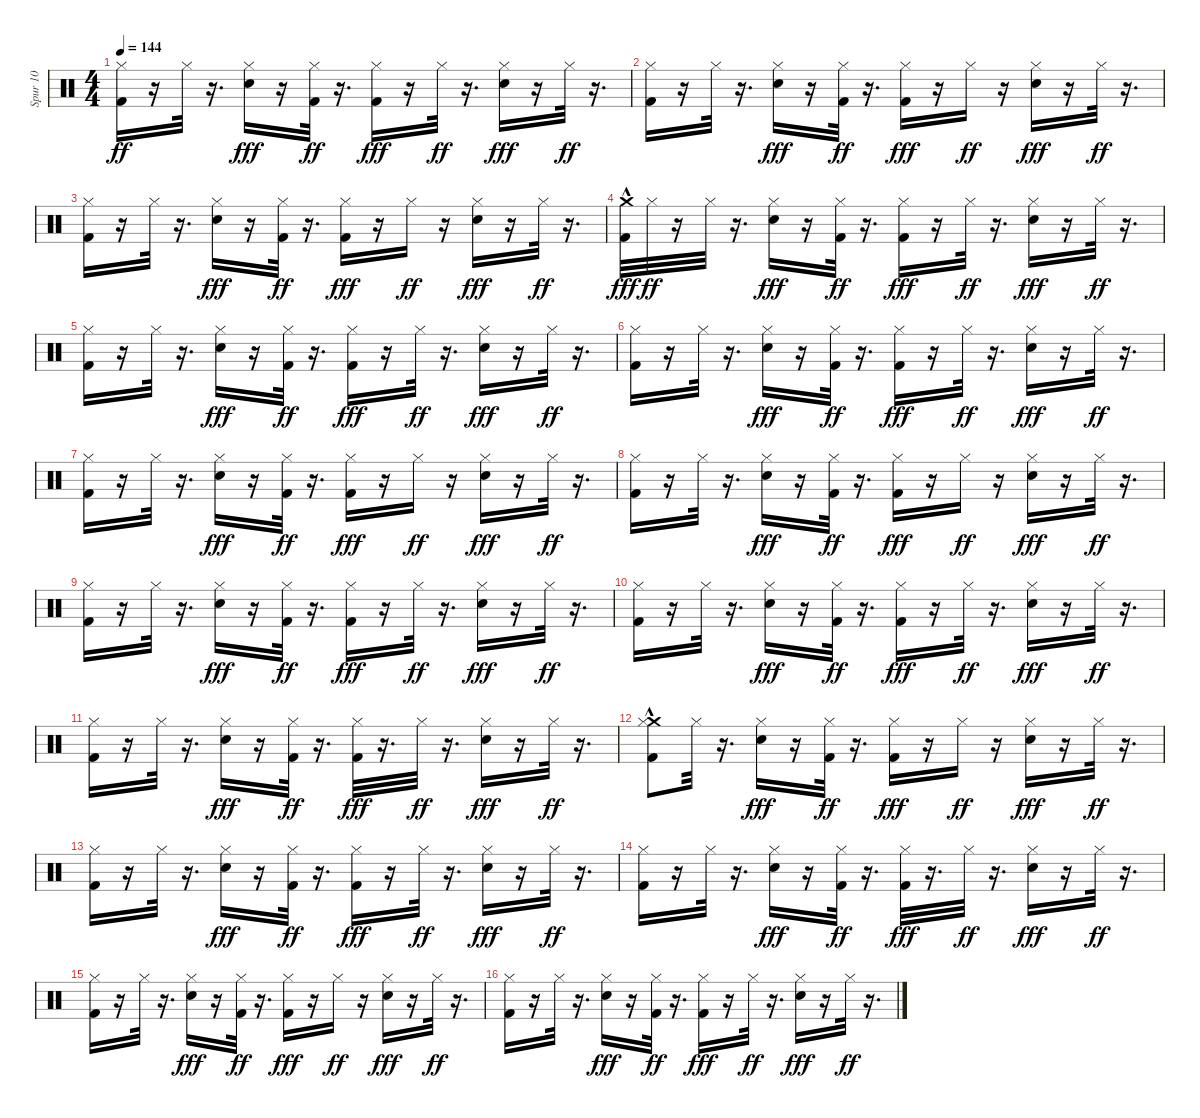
\track ("Spur 10" "Spur 10") {instrument percussion}
\staff {score}
\articulation defaults
\ts (4 4)
\tempo 144
\clef neutral
\ks c
("Kick (hit) 2" "Hi-Hat (closed)").16{dy ff} r.16 "Hi-Hat (closed)".32 r.16{d} ("Snare (hit) 2" "Hi-Hat (closed)").16{dy fff} r.16 ("Kick (hit) 2" "Hi-Hat (closed)").32{dy ff} r.16{d} ("Kick (hit) 2" "Hi-Hat (closed)").16{dy fff} r.16 "Hi-Hat (closed)".32{dy ff} r.16{d} ("Snare (hit) 2" "Hi-Hat (closed)").16{dy fff} r.16 "Hi-Hat (closed)".32{dy ff} r.16{d} |
("Kick (hit) 2" "Hi-Hat (closed)").16 r.16 "Hi-Hat (closed)".32 r.16{d} ("Snare (hit) 2" "Hi-Hat (closed)").16{dy fff} r.16 ("Kick (hit) 2" "Hi-Hat (closed)").32{dy ff} r.16{d} ("Kick (hit) 2" "Hi-Hat (closed)").16{dy fff} r.16 "Hi-Hat (closed)".16{dy ff} r.16 ("Snare (hit) 2" "Hi-Hat (closed)").16{dy fff} r.16 "Hi-Hat (closed)".32{dy ff} r.16{d} |
("Kick (hit) 2" "Hi-Hat (closed)").16 r.16 "Hi-Hat (closed)".32 r.16{d} ("Snare (hit) 2" "Hi-Hat (closed)").16{dy fff} r.16 ("Kick (hit) 2" "Hi-Hat (closed)").32{dy ff} r.16{d} ("Kick (hit) 2" "Hi-Hat (closed)").16{dy fff} r.16 "Hi-Hat (closed)".16{dy ff} r.16 ("Snare (hit) 2" "Hi-Hat (closed)").16{dy fff} r.16 "Hi-Hat (closed)".32{dy ff} r.16{d} |
("Crash medium (hit)"{hac} "Kick (hit) 2").32{dy fff} "Hi-Hat (closed)".32{dy ff} r.16 "Hi-Hat (closed)".32 r.16{d} ("Snare (hit) 2" "Hi-Hat (closed)").16{dy fff} r.16 ("Kick (hit) 2" "Hi-Hat (closed)").32{dy ff} r.16{d} ("Kick (hit) 2" "Hi-Hat (closed)").16{dy fff} r.16 "Hi-Hat (closed)".32{dy ff} r.16{d} ("Snare (hit) 2" "Hi-Hat (closed)").16{dy fff} r.16 "Hi-Hat (closed)".32{dy ff} r.16{d} |
("Kick (hit) 2" "Hi-Hat (closed)").16 r.16 "Hi-Hat (closed)".32 r.16{d} ("Snare (hit) 2" "Hi-Hat (closed)").16{dy fff} r.16 ("Kick (hit) 2" "Hi-Hat (closed)").32{dy ff} r.16{d} ("Kick (hit) 2" "Hi-Hat (closed)").16{dy fff} r.16 "Hi-Hat (closed)".32{dy ff} r.16{d} ("Snare (hit) 2" "Hi-Hat (closed)").16{dy fff} r.16 "Hi-Hat (closed)".32{dy ff} r.16{d} |
("Kick (hit) 2" "Hi-Hat (closed)").16 r.16 "Hi-Hat (closed)".32 r.16{d} ("Snare (hit) 2" "Hi-Hat (closed)").16{dy fff} r.16 ("Kick (hit) 2" "Hi-Hat (closed)").32{dy ff} r.16{d} ("Kick (hit) 2" "Hi-Hat (closed)").16{dy fff} r.16 "Hi-Hat (closed)".32{dy ff} r.16{d} ("Snare (hit) 2" "Hi-Hat (closed)").16{dy fff} r.16 "Hi-Hat (closed)".32{dy ff} r.16{d} |
("Kick (hit) 2" "Hi-Hat (closed)").16 r.16 "Hi-Hat (closed)".32 r.16{d} ("Snare (hit) 2" "Hi-Hat (closed)").16{dy fff} r.16 ("Kick (hit) 2" "Hi-Hat (closed)").32{dy ff} r.16{d} ("Kick (hit) 2" "Hi-Hat (closed)").16{dy fff} r.16 "Hi-Hat (closed)".16{dy ff} r.16 ("Snare (hit) 2" "Hi-Hat (closed)").16{dy fff} r.16 "Hi-Hat (closed)".32{dy ff} r.16{d} |
("Kick (hit) 2" "Hi-Hat (closed)").16 r.16 "Hi-Hat (closed)".32 r.16{d} ("Snare (hit) 2" "Hi-Hat (closed)").16{dy fff} r.16 ("Kick (hit) 2" "Hi-Hat (closed)").32{dy ff} r.16{d} ("Kick (hit) 2" "Hi-Hat (closed)").16{dy fff} r.16 "Hi-Hat (closed)".16{dy ff} r.16 ("Snare (hit) 2" "Hi-Hat (closed)").16{dy fff} r.16 "Hi-Hat (closed)".32{dy ff} r.16{d} |
("Kick (hit) 2" "Hi-Hat (closed)").16 r.16 "Hi-Hat (closed)".32 r.16{d} ("Snare (hit) 2" "Hi-Hat (closed)").16{dy fff} r.16 ("Kick (hit) 2" "Hi-Hat (closed)").32{dy ff} r.16{d} ("Kick (hit) 2" "Hi-Hat (closed)").16{dy fff} r.16 "Hi-Hat (closed)".32{dy ff} r.16{d} ("Snare (hit) 2" "Hi-Hat (closed)").16{dy fff} r.16 "Hi-Hat (closed)".32{dy ff} r.16{d} |
("Kick (hit) 2" "Hi-Hat (closed)").16 r.16 "Hi-Hat (closed)".32 r.16{d} ("Snare (hit) 2" "Hi-Hat (closed)").16{dy fff} r.16 ("Kick (hit) 2" "Hi-Hat (closed)").32{dy ff} r.16{d} ("Kick (hit) 2" "Hi-Hat (closed)").16{dy fff} r.16 "Hi-Hat (closed)".32{dy ff} r.16{d} ("Snare (hit) 2" "Hi-Hat (closed)").16{dy fff} r.16 "Hi-Hat (closed)".32{dy ff} r.16{d} |
("Kick (hit) 2" "Hi-Hat (closed)").16 r.16 "Hi-Hat (closed)".32 r.16{d} ("Snare (hit) 2" "Hi-Hat (closed)").16{dy fff} r.16 ("Kick (hit) 2" "Hi-Hat (closed)").32{dy ff} r.16{d} ("Kick (hit) 2" "Hi-Hat (closed)").32{dy fff} r.16{d} "Hi-Hat (closed)".32{dy ff} r.16{d} ("Snare (hit) 2" "Hi-Hat (closed)").16{dy fff} r.16 "Hi-Hat (closed)".32{dy ff} r.16{d} |
("Crash medium (hit)"{hac} "Kick (hit) 2" "Hi-Hat (closed)").8 "Hi-Hat (closed)".32 r.16{d} ("Snare (hit) 2" "Hi-Hat (closed)").16{dy fff} r.16 ("Kick (hit) 2" "Hi-Hat (closed)").32{dy ff} r.16{d} ("Kick (hit) 2" "Hi-Hat (closed)").16{dy fff} r.16 "Hi-Hat (closed)".16{dy ff} r.16 ("Snare (hit) 2" "Hi-Hat (closed)").16{dy fff} r.16 "Hi-Hat (closed)".32{dy ff} r.16{d} |
("Kick (hit) 2" "Hi-Hat (closed)").16 r.16 "Hi-Hat (closed)".32 r.16{d} ("Snare (hit) 2" "Hi-Hat (closed)").16{dy fff} r.16 ("Kick (hit) 2" "Hi-Hat (closed)").32{dy ff} r.16{d} ("Kick (hit) 2" "Hi-Hat (closed)").16{dy fff} r.16 "Hi-Hat (closed)".32{dy ff} r.16{d} ("Snare (hit) 2" "Hi-Hat (closed)").16{dy fff} r.16 "Hi-Hat (closed)".32{dy ff} r.16{d} |
("Kick (hit) 2" "Hi-Hat (closed)").16 r.16 "Hi-Hat (closed)".32 r.16{d} ("Snare (hit) 2" "Hi-Hat (closed)").16{dy fff} r.16 ("Kick (hit) 2" "Hi-Hat (closed)").32{dy ff} r.16{d} ("Kick (hit) 2" "Hi-Hat (closed)").32{dy fff} r.16{d} "Hi-Hat (closed)".32{dy ff} r.16{d} ("Snare (hit) 2" "Hi-Hat (closed)").16{dy fff} r.16 "Hi-Hat (closed)".32{dy ff} r.16{d} |
("Kick (hit) 2" "Hi-Hat (closed)").16 r.16 "Hi-Hat (closed)".32 r.16{d} ("Snare (hit) 2" "Hi-Hat (closed)").16{dy fff} r.16 ("Kick (hit) 2" "Hi-Hat (closed)").32{dy ff} r.16{d} ("Kick (hit) 2" "Hi-Hat (closed)").16{dy fff} r.16 "Hi-Hat (closed)".16{dy ff} r.16 ("Snare (hit) 2" "Hi-Hat (closed)").16{dy fff} r.16 "Hi-Hat (closed)".32{dy ff} r.16{d} |
("Kick (hit) 2" "Hi-Hat (closed)").16 r.16 "Hi-Hat (closed)".32 r.16{d} ("Snare (hit) 2" "Hi-Hat (closed)").16{dy fff} r.16 ("Kick (hit) 2" "Hi-Hat (closed)").32{dy ff} r.16{d} ("Kick (hit) 2" "Hi-Hat (closed)").16{dy fff} r.16 "Hi-Hat (closed)".32{dy ff} r.16{d} ("Snare (hit) 2" "Hi-Hat (closed)").16{dy fff} r.16 "Hi-Hat (closed)".32{dy ff} r.16{d}
